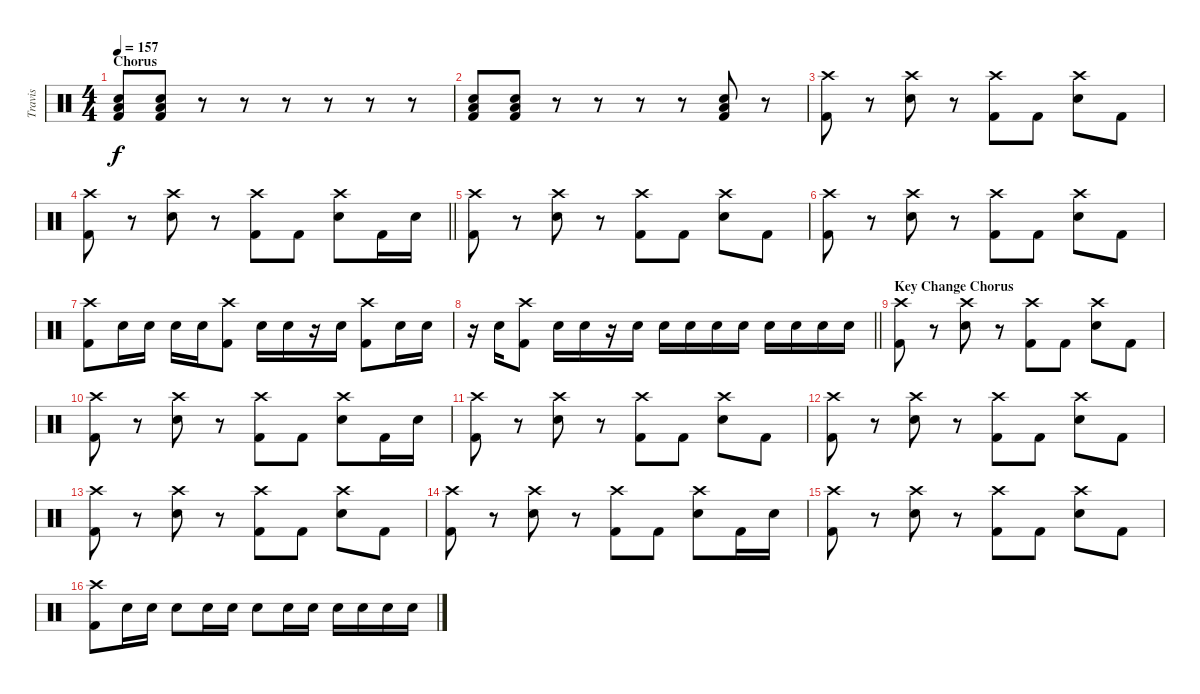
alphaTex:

\track ("Travis" "Travis") {instrument percussion}
\staff {score}
\articulation defaults
\ts (4 4)
\section ("" "Chorus")
\tempo 157
\clef neutral
\ks c
("Low Floor Tom (hit)" "Electric Snare (hit)" "Kick (hit) 2").8{dy f} ("Low Floor Tom (hit)" "Electric Snare (hit)" "Kick (hit) 2").8 r.8 r.8 r.8 r.8 r.8 r.8 |
("Low Floor Tom (hit)" "Electric Snare (hit)" "Kick (hit) 2").8 ("Low Floor Tom (hit)" "Electric Snare (hit)" "Kick (hit) 2").8 r.8 r.8 r.8 r.8 ("Low Floor Tom (hit)" "Electric Snare (hit)" "Kick (hit) 2").8 r.8 |
("Crash high (hit)" "Kick (hit) 2").8 r.8 ("Crash high (hit)" "Electric Snare (hit)").8 r.8 ("Crash high (hit)" "Kick (hit) 2").8 "Kick (hit) 2".8 ("Crash high (hit)" "Electric Snare (hit)").8 "Kick (hit) 2".8 |
\barLineRight lightlight
("Crash high (hit)" "Kick (hit) 2").8 r.8 ("Crash high (hit)" "Electric Snare (hit)").8 r.8 ("Crash high (hit)" "Kick (hit) 2").8 "Kick (hit) 2".8 ("Crash high (hit)" "Electric Snare (hit)").8 "Kick (hit) 2".16 "Electric Snare (hit)".16 |
("Crash high (hit)" "Kick (hit) 2").8 r.8 ("Crash high (hit)" "Electric Snare (hit)").8 r.8 ("Crash high (hit)" "Kick (hit) 2").8 "Kick (hit) 2".8 ("Crash high (hit)" "Electric Snare (hit)").8 "Kick (hit) 2".8 |
("Crash high (hit)" "Kick (hit) 2").8 r.8 ("Crash high (hit)" "Electric Snare (hit)").8 r.8 ("Crash high (hit)" "Kick (hit) 2").8 "Kick (hit) 2".8 ("Crash high (hit)" "Electric Snare (hit)").8 "Kick (hit) 2".8 |
("Crash high (hit)" "Kick (hit) 2").8 "Electric Snare (hit)".16 "Electric Snare (hit)".16 "Electric Snare (hit)".16 "Electric Snare (hit)".16 ("Crash high (hit)" "Kick (hit) 2").8 "Electric Snare (hit)".16 "Electric Snare (hit)".16 r.16 "Electric Snare (hit)".16 ("Crash high (hit)" "Kick (hit) 2").8 "Electric Snare (hit)".16 "Electric Snare (hit)".16 |
\barLineRight lightlight
r.16 "Electric Snare (hit)".16 ("Crash high (hit)" "Kick (hit) 2").8 "Electric Snare (hit)".16 "Electric Snare (hit)".16 r.16 "Electric Snare (hit)".16 "Electric Snare (hit)".16 "Electric Snare (hit)".16 "Electric Snare (hit)".16 "Electric Snare (hit)".16 "Electric Snare (hit)".16 "Electric Snare (hit)".16 "Electric Snare (hit)".16 "Electric Snare (hit)".16 |
\section ("" "Key Change Chorus")
("Crash high (hit)" "Kick (hit) 2").8 r.8 ("Crash high (hit)" "Electric Snare (hit)").8 r.8 ("Crash high (hit)" "Kick (hit) 2").8 "Kick (hit) 2".8 ("Crash high (hit)" "Electric Snare (hit)").8 "Kick (hit) 2".8 |
("Crash high (hit)" "Kick (hit) 2").8 r.8 ("Crash high (hit)" "Electric Snare (hit)").8 r.8 ("Crash high (hit)" "Kick (hit) 2").8 "Kick (hit) 2".8 ("Crash high (hit)" "Electric Snare (hit)").8 "Kick (hit) 2".16 "Electric Snare (hit)".16 |
("Crash high (hit)" "Kick (hit) 2").8 r.8 ("Crash high (hit)" "Electric Snare (hit)").8 r.8 ("Crash high (hit)" "Kick (hit) 2").8 "Kick (hit) 2".8 ("Crash high (hit)" "Electric Snare (hit)").8 "Kick (hit) 2".8 |
("Crash high (hit)" "Kick (hit) 2").8 r.8 ("Crash high (hit)" "Electric Snare (hit)").8 r.8 ("Crash high (hit)" "Kick (hit) 2").8 "Kick (hit) 2".8 ("Crash high (hit)" "Electric Snare (hit)").8 "Kick (hit) 2".8 |
("Crash high (hit)" "Kick (hit) 2").8 r.8 ("Crash high (hit)" "Electric Snare (hit)").8 r.8 ("Crash high (hit)" "Kick (hit) 2").8 "Kick (hit) 2".8 ("Crash high (hit)" "Electric Snare (hit)").8 "Kick (hit) 2".8 |
("Crash high (hit)" "Kick (hit) 2").8 r.8 ("Crash high (hit)" "Electric Snare (hit)").8 r.8 ("Crash high (hit)" "Kick (hit) 2").8 "Kick (hit) 2".8 ("Crash high (hit)" "Electric Snare (hit)").8 "Kick (hit) 2".16 "Electric Snare (hit)".16 |
("Crash high (hit)" "Kick (hit) 2").8 r.8 ("Crash high (hit)" "Electric Snare (hit)").8 r.8 ("Crash high (hit)" "Kick (hit) 2").8 "Kick (hit) 2".8 ("Crash high (hit)" "Electric Snare (hit)").8 "Kick (hit) 2".8 |
("Crash high (hit)" "Kick (hit) 2").8 "Electric Snare (hit)".16 "Electric Snare (hit)".16 "Electric Snare (hit)".8 "Electric Snare (hit)".16 "Electric Snare (hit)".16 "Electric Snare (hit)".8 "Electric Snare (hit)".16 "Electric Snare (hit)".16 "Electric Snare (hit)".16 "Electric Snare (hit)".16 "Electric Snare (hit)".16 "Electric Snare (hit)".16
